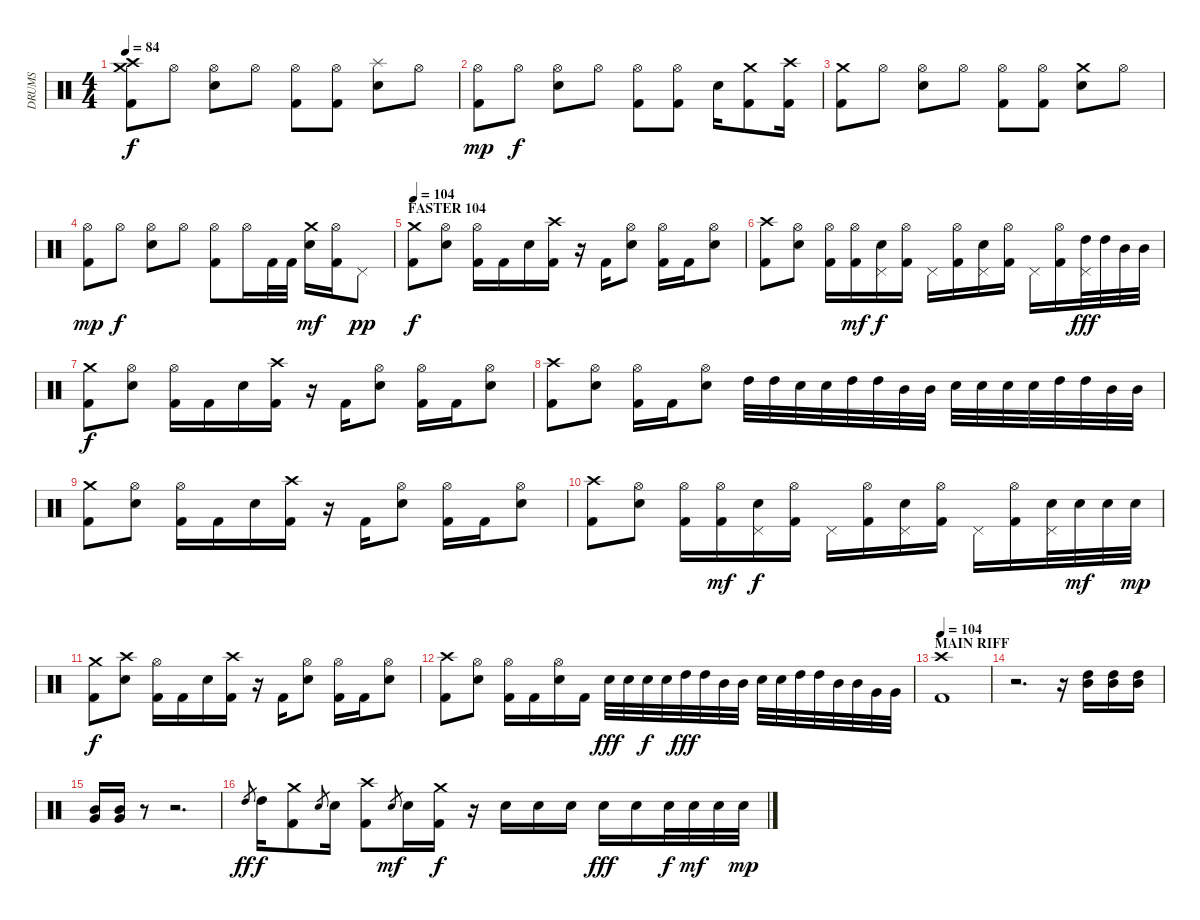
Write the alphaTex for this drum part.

\track ("DRUMS" "DRUMS") {instrument percussion}
\staff {score}
\articulation defaults
\ts (4 4)
\tempo 84
\clef neutral
\ks c
("Crash medium (hit)" "Crash high (hit)" "Kick (hit) 2").8{dy f} "Hi-Hat (open)".8 ("Hi-Hat (open)" "Electric Snare (hit)").8 "Hi-Hat (open)".8 ("Hi-Hat (open)" "Kick (hit) 2").8 ("Hi-Hat (open)" "Kick (hit) 2").8 ("Splash (hit)" "Electric Snare (hit)").8 "Hi-Hat (open)".8 |
("Hi-Hat (open)" "Kick (hit) 2").8{dy mp} "Hi-Hat (open)".8{dy f} ("Hi-Hat (open)" "Electric Snare (hit)").8 "Hi-Hat (open)".8 ("Hi-Hat (open)" "Kick (hit) 2").8 ("Hi-Hat (open)" "Kick (hit) 2").8 "Electric Snare (hit)".16 ("Crash medium (hit)" "Kick (hit) 2").8 ("Crash high (hit)" "Kick (hit) 2").16 |
("Crash medium (hit)" "Kick (hit) 2").8 "Hi-Hat (open)".8 ("Hi-Hat (open)" "Electric Snare (hit)").8 "Hi-Hat (open)".8 ("Hi-Hat (open)" "Kick (hit) 2").8 ("Hi-Hat (open)" "Kick (hit) 2").8 ("Crash medium (hit)" "Electric Snare (hit)").8 "Hi-Hat (open)".8 |
("Hi-Hat (open)" "Kick (hit) 2").8{dy mp} "Hi-Hat (open)".8{dy f} ("Hi-Hat (open)" "Electric Snare (hit)").8 "Hi-Hat (open)".8 ("Hi-Hat (open)" "Kick (hit) 2").8 "Hi-Hat (open)".16 "Kick (hit) 2".32 "Kick (hit) 2".32 ("Crash medium (hit)" "Electric Snare (hit)").16{dy mf} ("Hi-Hat (open)" "Kick (hit) 2").16 "Pedal Hi-Hat (hit)".8{dy pp} |
\section ("" "FASTER 104")
\tempo 104
("Crash medium (hit)" "Kick (hit) 2").8{dy f} ("Hi-Hat (open)" "Electric Snare (hit)").8 ("Hi-Hat (open)" "Kick (hit) 2").16 "Kick (hit) 2".16 "Electric Snare (hit)".16 ("Crash high (hit)" "Kick (hit) 2").16 r.16 "Kick (hit) 2".16 ("Hi-Hat (open)" "Electric Snare (hit)").8 ("Hi-Hat (open)" "Kick (hit) 2").16 "Kick (hit) 2".16 ("Hi-Hat (open)" "Electric Snare (hit)").8 |
("Crash high (hit)" "Kick (hit) 2").8 ("Hi-Hat (open)" "Electric Snare (hit)").8 ("Hi-Hat (open)" "Kick (hit) 2").16 ("Hi-Hat (open)" "Kick (hit) 2").16{dy mf} ("Electric Snare (hit)" "Pedal Hi-Hat (hit)").16{dy f} ("Hi-Hat (open)" "Kick (hit) 2").16 "Pedal Hi-Hat (hit)".16 ("Hi-Hat (open)" "Kick (hit) 2").16 ("Electric Snare (hit)" "Pedal Hi-Hat (hit)").16 ("Hi-Hat (open)" "Kick (hit) 2").16 "Pedal Hi-Hat (hit)".16 ("Hi-Hat (open)" "Kick (hit) 2").16 ("High Tom (hit)" "Pedal Hi-Hat (hit)").32{dy fff} "High Tom (hit)".32 "Mid Tom (hit)".32 "Mid Tom (hit)".32 |
("Crash medium (hit)" "Kick (hit) 2").8{dy f} ("Hi-Hat (open)" "Electric Snare (hit)").8 ("Hi-Hat (open)" "Kick (hit) 2").16 "Kick (hit) 2".16 "Electric Snare (hit)".16 ("Crash high (hit)" "Kick (hit) 2").16 r.16 "Kick (hit) 2".16 ("Hi-Hat (open)" "Electric Snare (hit)").8 ("Hi-Hat (open)" "Kick (hit) 2").16 "Kick (hit) 2".16 ("Hi-Hat (open)" "Electric Snare (hit)").8 |
("Crash high (hit)" "Kick (hit) 2").8 ("Hi-Hat (open)" "Electric Snare (hit)").8 ("Hi-Hat (open)" "Kick (hit) 2").16 "Kick (hit) 2".16 ("Hi-Hat (open)" "Electric Snare (hit)").8 "High Tom (hit)".32 "High Tom (hit)".32 "Electric Snare (hit)".32 "Electric Snare (hit)".32 "High Tom (hit)".32 "High Tom (hit)".32 "Mid Tom (hit)".32 "Mid Tom (hit)".32 "Electric Snare (hit)".32 "Electric Snare (hit)".32 "Electric Snare (hit)".32 "Electric Snare (hit)".32 "High Tom (hit)".32 "High Tom (hit)".32 "Mid Tom (hit)".32 "Mid Tom (hit)".32 |
("Crash medium (hit)" "Kick (hit) 2").8 ("Hi-Hat (open)" "Electric Snare (hit)").8 ("Hi-Hat (open)" "Kick (hit) 2").16 "Kick (hit) 2".16 "Electric Snare (hit)".16 ("Crash high (hit)" "Kick (hit) 2").16 r.16 "Kick (hit) 2".16 ("Hi-Hat (open)" "Electric Snare (hit)").8 ("Hi-Hat (open)" "Kick (hit) 2").16 "Kick (hit) 2".16 ("Hi-Hat (open)" "Electric Snare (hit)").8 |
("Crash high (hit)" "Kick (hit) 2").8 ("Hi-Hat (open)" "Electric Snare (hit)").8 ("Hi-Hat (open)" "Kick (hit) 2").16 ("Hi-Hat (open)" "Kick (hit) 2").16{dy mf} ("Electric Snare (hit)" "Pedal Hi-Hat (hit)").16{dy f} ("Hi-Hat (open)" "Kick (hit) 2").16 "Pedal Hi-Hat (hit)".16 ("Hi-Hat (open)" "Kick (hit) 2").16 ("Electric Snare (hit)" "Pedal Hi-Hat (hit)").16 ("Hi-Hat (open)" "Kick (hit) 2").16 "Pedal Hi-Hat (hit)".16 ("Hi-Hat (open)" "Kick (hit) 2").16 ("Electric Snare (hit)" "Pedal Hi-Hat (hit)").32 "Electric Snare (hit)".32{dy mf} "Electric Snare (hit)".32 "Electric Snare (hit)".32{dy mp} |
("Crash medium (hit)" "Kick (hit) 2").8{dy f} ("Crash high (hit)" "Electric Snare (hit)").8 ("Hi-Hat (open)" "Kick (hit) 2").16 "Kick (hit) 2".16 "Electric Snare (hit)".16 ("Crash high (hit)" "Kick (hit) 2").16 r.16 "Kick (hit) 2".16 ("Hi-Hat (open)" "Electric Snare (hit)").8 ("Hi-Hat (open)" "Kick (hit) 2").16 "Kick (hit) 2".16 ("Hi-Hat (open)" "Electric Snare (hit)").8 |
("Crash high (hit)" "Kick (hit) 2").8 ("Hi-Hat (open)" "Electric Snare (hit)").8 ("Hi-Hat (open)" "Kick (hit) 2").16 "Kick (hit) 2".16 ("Hi-Hat (open)" "Electric Snare (hit)").16 "Kick (hit) 2".16 "Electric Snare (hit)".32{dy fff} "Electric Snare (hit)".32 "Electric Snare (hit)".32{dy f} "Electric Snare (hit)".32 "High Tom (hit)".32{dy fff} "High Tom (hit)".32 "Mid Tom (hit)".32 "Mid Tom (hit)".32 "Electric Snare (hit)".32 "Electric Snare (hit)".32 "High Tom (hit)".32 "High Tom (hit)".32 "Mid Tom (hit)".32 "Mid Tom (hit)".32 "Very Low Tom (hit)".32 "Very Low Tom (hit)".32 |
\section ("" "MAIN RIFF")
\tempo 104
("Crash high (hit)" "Kick (hit) 2").1 |
r.2{d} r.16 ("High Tom (hit)" "Mid Tom (hit)").16 ("High Tom (hit)" "Mid Tom (hit)").16 ("High Tom (hit)" "Mid Tom (hit)").16 |
("Mid Tom (hit)" "Very Low Tom (hit)").16 ("Mid Tom (hit)" "Very Low Tom (hit)").16 r.8 r.2{d} |
"High Tom (hit)"{sl}.8{gr dy ff} "High Tom (hit)".16{dy f} ("Crash medium (hit)" "Kick (hit) 2").8 "Electric Snare (hit)"{h}.8{gr} "Electric Snare (hit)".16 ("Crash high (hit)" "Kick (hit) 2").8 "Electric Snare (hit)"{sl}.8{gr dy mf} "Electric Snare (hit)".16 ("Crash medium (hit)" "Kick (hit) 2").16{dy f} r.16 "Electric Snare (hit)".16 "Electric Snare (hit)".16 "Electric Snare (hit)".16 "Electric Snare (hit)".16{dy fff} "Electric Snare (hit)".16 "Electric Snare (hit)".32{dy f} "Electric Snare (hit)".32{dy mf} "Electric Snare (hit)".32 "Electric Snare (hit)".32{dy mp}
